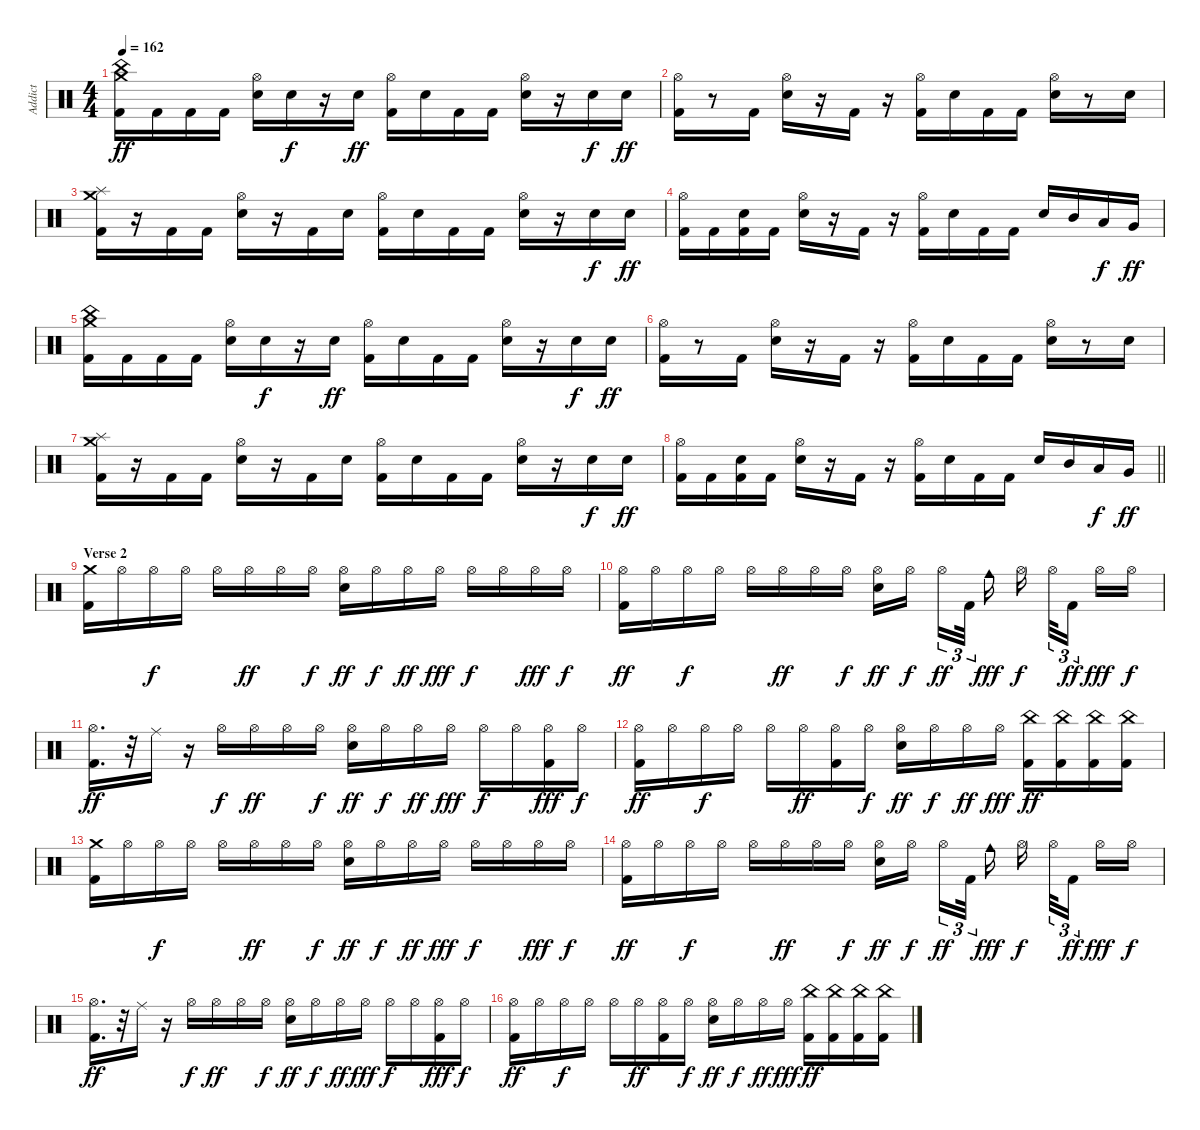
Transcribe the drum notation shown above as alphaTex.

\track ("Addict" "Addict") {instrument percussion}
\staff {score}
\articulation defaults
\ts (4 4)
\tempo 162
\clef neutral
\ks c
("Kick (hit) 2" "Crash medium (hit)" "China (hit)").16{dy ff} "Kick (hit) 2".16 "Kick (hit) 2".16 "Kick (hit) 2".16 ("Snare (hit) 2" "Hi-Hat (open)").16 "Snare (hit) 2".16{dy f} r.16 "Snare (hit) 2".16{dy ff} ("Kick (hit) 2" "Hi-Hat (open)").16 "Snare (hit) 2".16 "Kick (hit) 2".16 "Kick (hit) 2".16 ("Snare (hit) 2" "Hi-Hat (open)").16 r.16 "Snare (hit) 2".16{dy f} "Snare (hit) 2".16{dy ff} |
("Kick (hit) 2" "Hi-Hat (open)").16 r.8 "Kick (hit) 2".16 ("Snare (hit) 2" "Hi-Hat (open)").16 r.16 "Kick (hit) 2".16 r.16 ("Kick (hit) 2" "Hi-Hat (open)").16 "Snare (hit) 2".16 "Kick (hit) 2".16 "Kick (hit) 2".16 ("Snare (hit) 2" "Hi-Hat (open)").16 r.8 "Snare (hit) 2".16 |
("Kick (hit) 2" "Crash medium (hit)" "Splash (hit)").16 r.16 "Kick (hit) 2".16 "Kick (hit) 2".16 ("Snare (hit) 2" "Hi-Hat (open)").16 r.16 "Kick (hit) 2".16 "Snare (hit) 2".16 ("Kick (hit) 2" "Hi-Hat (open)").16 "Snare (hit) 2".16 "Kick (hit) 2".16 "Kick (hit) 2".16 ("Snare (hit) 2" "Hi-Hat (open)").16 r.16 "Snare (hit) 2".16{dy f} "Snare (hit) 2".16{dy ff} |
("Kick (hit) 2" "Hi-Hat (open)").16 "Kick (hit) 2".16 ("Kick (hit) 2" "Snare (hit) 2").16 "Kick (hit) 2".16 ("Snare (hit) 2" "Hi-Hat (open)").16 r.16 "Kick (hit) 2".16 r.16 ("Kick (hit) 2" "Hi-Hat (open)").16 "Snare (hit) 2".16 "Kick (hit) 2".16 "Kick (hit) 2".16 "Snare (hit) 2".16 "Mid Tom (hit)".16 "Low Tom (hit)".16{dy f} "Very Low Tom (hit)".16{dy ff} |
("Kick (hit) 2" "Crash medium (hit)" "China (hit)").16 "Kick (hit) 2".16 "Kick (hit) 2".16 "Kick (hit) 2".16 ("Snare (hit) 2" "Hi-Hat (open)").16 "Snare (hit) 2".16{dy f} r.16 "Snare (hit) 2".16{dy ff} ("Kick (hit) 2" "Hi-Hat (open)").16 "Snare (hit) 2".16 "Kick (hit) 2".16 "Kick (hit) 2".16 ("Snare (hit) 2" "Hi-Hat (open)").16 r.16 "Snare (hit) 2".16{dy f} "Snare (hit) 2".16{dy ff} |
("Kick (hit) 2" "Hi-Hat (open)").16 r.8 "Kick (hit) 2".16 ("Snare (hit) 2" "Hi-Hat (open)").16 r.16 "Kick (hit) 2".16 r.16 ("Kick (hit) 2" "Hi-Hat (open)").16 "Snare (hit) 2".16 "Kick (hit) 2".16 "Kick (hit) 2".16 ("Snare (hit) 2" "Hi-Hat (open)").16 r.8 "Snare (hit) 2".16 |
("Kick (hit) 2" "Crash medium (hit)" "Splash (hit)").16 r.16 "Kick (hit) 2".16 "Kick (hit) 2".16 ("Snare (hit) 2" "Hi-Hat (open)").16 r.16 "Kick (hit) 2".16 "Snare (hit) 2".16 ("Kick (hit) 2" "Hi-Hat (open)").16 "Snare (hit) 2".16 "Kick (hit) 2".16 "Kick (hit) 2".16 ("Snare (hit) 2" "Hi-Hat (open)").16 r.16 "Snare (hit) 2".16{dy f} "Snare (hit) 2".16{dy ff} |
\barLineRight lightlight
("Kick (hit) 2" "Hi-Hat (open)").16 "Kick (hit) 2".16 ("Kick (hit) 2" "Snare (hit) 2").16 "Kick (hit) 2".16 ("Snare (hit) 2" "Hi-Hat (open)").16 r.16 "Kick (hit) 2".16 r.16 ("Kick (hit) 2" "Hi-Hat (open)").16 "Snare (hit) 2".16 "Kick (hit) 2".16 "Kick (hit) 2".16 "Snare (hit) 2".16 "Mid Tom (hit)".16 "Low Tom (hit)".16{dy f} "Very Low Tom (hit)".16{dy ff} |
\section ("" "Verse 2")
("Kick (hit) 2" "Crash medium (hit)").16 "Hi-Hat (open)".16 "Hi-Hat (open)".16{dy f} "Hi-Hat (open)".16 "Hi-Hat (open)".16 "Hi-Hat (open)".16{dy ff} "Hi-Hat (open)".16 "Hi-Hat (open)".16{dy f} ("Snare (hit) 2" "Hi-Hat (open)").16{dy ff} "Hi-Hat (open)".16{dy f} "Hi-Hat (open)".16{dy ff} "Hi-Hat (open)".16{dy fff} "Hi-Hat (open)".16{dy f} "Hi-Hat (open)".16 "Hi-Hat (open)".16{dy fff} "Hi-Hat (open)".16{dy f} |
("Kick (hit) 2" "Hi-Hat (open)").16{dy ff} "Hi-Hat (open)".16 "Hi-Hat (open)".16{dy f} "Hi-Hat (open)".16 "Hi-Hat (open)".16 "Hi-Hat (open)".16{dy ff} "Hi-Hat (open)".16 "Hi-Hat (open)".16{dy f} ("Snare (hit) 2" "Hi-Hat (open)").16{dy ff} "Hi-Hat (open)".16{dy f beam splitsecondary} "Hi-Hat (open)".16{tu (3 2) dy ff} "Kick (hit) 2".32{tu (3 2) beam splitsecondary} "Cowbell medium (hit)".16{dy fff} "Hi-Hat (open)".16{dy f beam splitsecondary} "Hi-Hat (open)".32{tu (3 2)} "Kick (hit) 2".16{tu (3 2) dy ff beam splitsecondary} "Hi-Hat (open)".16{dy fff} "Hi-Hat (open)".16{dy f} |
("Kick (hit) 2" "Hi-Hat (open)").16{d dy ff} r.32 "Ride (middle)".16 r.16 "Hi-Hat (open)".16{dy f} "Hi-Hat (open)".16{dy ff} "Hi-Hat (open)".16 "Hi-Hat (open)".16{dy f} ("Snare (hit) 2" "Hi-Hat (open)").16{dy ff} "Hi-Hat (open)".16{dy f} "Hi-Hat (open)".16{dy ff} "Hi-Hat (open)".16{dy fff} "Hi-Hat (open)".16{dy f} "Hi-Hat (open)".16 ("Kick (hit) 2" "Hi-Hat (open)").16{dy fff} "Hi-Hat (open)".16{dy f} |
("Kick (hit) 2" "Hi-Hat (open)").16{dy ff} "Hi-Hat (open)".16 "Hi-Hat (open)".16{dy f} "Hi-Hat (open)".16 "Hi-Hat (open)".16 "Hi-Hat (open)".16{dy ff} ("Kick (hit) 2" "Hi-Hat (open)").16 "Hi-Hat (open)".16{dy f} ("Snare (hit) 2" "Hi-Hat (open)").16{dy ff} "Hi-Hat (open)".16{dy f} "Hi-Hat (open)".16{dy ff} "Hi-Hat (open)".16{dy fff} ("Kick (hit) 2" "China (hit)").16{dy ff} ("Kick (hit) 2" "China (hit)").16 ("Kick (hit) 2" "China (hit)").16 ("Kick (hit) 2" "China (hit)").16 |
("Kick (hit) 2" "Crash medium (hit)").16 "Hi-Hat (open)".16 "Hi-Hat (open)".16{dy f} "Hi-Hat (open)".16 "Hi-Hat (open)".16 "Hi-Hat (open)".16{dy ff} "Hi-Hat (open)".16 "Hi-Hat (open)".16{dy f} ("Snare (hit) 2" "Hi-Hat (open)").16{dy ff} "Hi-Hat (open)".16{dy f} "Hi-Hat (open)".16{dy ff} "Hi-Hat (open)".16{dy fff} "Hi-Hat (open)".16{dy f} "Hi-Hat (open)".16 "Hi-Hat (open)".16{dy fff} "Hi-Hat (open)".16{dy f} |
("Kick (hit) 2" "Hi-Hat (open)").16{dy ff} "Hi-Hat (open)".16 "Hi-Hat (open)".16{dy f} "Hi-Hat (open)".16 "Hi-Hat (open)".16 "Hi-Hat (open)".16{dy ff} "Hi-Hat (open)".16 "Hi-Hat (open)".16{dy f} ("Snare (hit) 2" "Hi-Hat (open)").16{dy ff} "Hi-Hat (open)".16{dy f beam splitsecondary} "Hi-Hat (open)".16{tu (3 2) dy ff} "Kick (hit) 2".32{tu (3 2) beam splitsecondary} "Cowbell medium (hit)".16{dy fff} "Hi-Hat (open)".16{dy f beam splitsecondary} "Hi-Hat (open)".32{tu (3 2)} "Kick (hit) 2".16{tu (3 2) dy ff beam splitsecondary} "Hi-Hat (open)".16{dy fff} "Hi-Hat (open)".16{dy f} |
("Kick (hit) 2" "Hi-Hat (open)").16{d dy ff} r.32 "Ride (middle)".16 r.16 "Hi-Hat (open)".16{dy f} "Hi-Hat (open)".16{dy ff} "Hi-Hat (open)".16 "Hi-Hat (open)".16{dy f} ("Snare (hit) 2" "Hi-Hat (open)").16{dy ff} "Hi-Hat (open)".16{dy f} "Hi-Hat (open)".16{dy ff} "Hi-Hat (open)".16{dy fff} "Hi-Hat (open)".16{dy f} "Hi-Hat (open)".16 ("Kick (hit) 2" "Hi-Hat (open)").16{dy fff} "Hi-Hat (open)".16{dy f} |
("Kick (hit) 2" "Hi-Hat (open)").16{dy ff} "Hi-Hat (open)".16 "Hi-Hat (open)".16{dy f} "Hi-Hat (open)".16 "Hi-Hat (open)".16 "Hi-Hat (open)".16{dy ff} ("Kick (hit) 2" "Hi-Hat (open)").16 "Hi-Hat (open)".16{dy f} ("Snare (hit) 2" "Hi-Hat (open)").16{dy ff} "Hi-Hat (open)".16{dy f} "Hi-Hat (open)".16{dy ff} "Hi-Hat (open)".16{dy fff} ("Kick (hit) 2" "China (hit)").16{dy ff} ("Kick (hit) 2" "China (hit)").16 ("Kick (hit) 2" "China (hit)").16 ("Kick (hit) 2" "China (hit)").16
